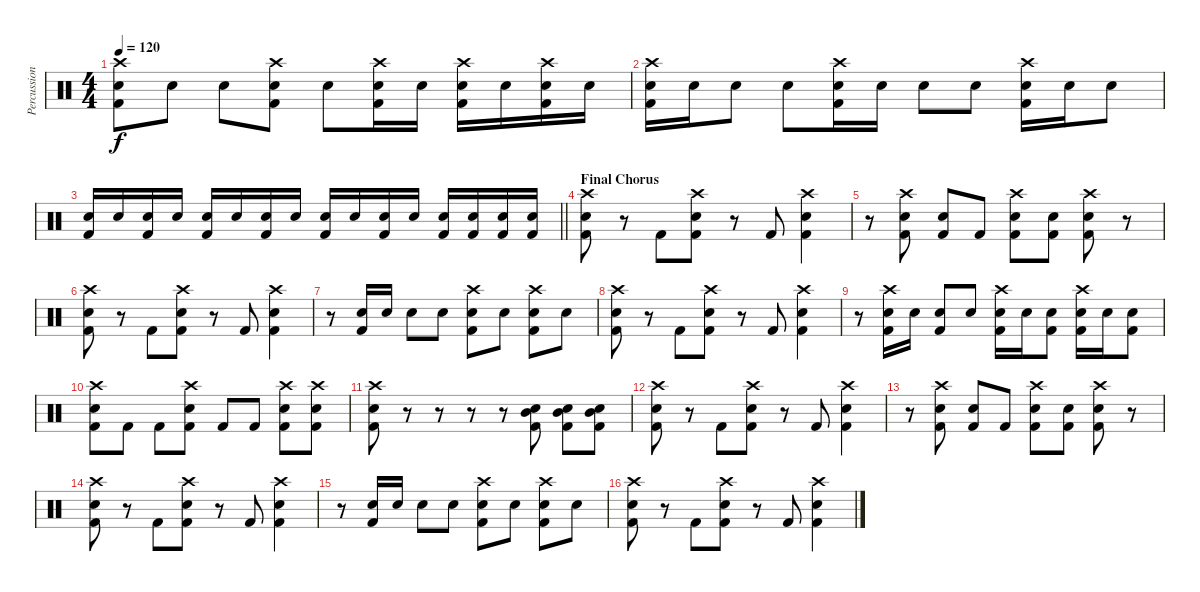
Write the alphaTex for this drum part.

\track ("Percussion" "Percussion") {instrument percussion}
\staff {score}
\articulation defaults
\ts (4 4)
\tempo 120
\clef neutral
\ks c
("Crash high (hit)" "Electric Snare (hit)" "Kick (hit) 2").8{dy f} "Electric Snare (hit)".8 "Electric Snare (hit)".8 ("Crash high (hit)" "Electric Snare (hit)" "Kick (hit) 2").8 "Electric Snare (hit)".8 ("Crash high (hit)" "Electric Snare (hit)" "Kick (hit) 2").16 "Electric Snare (hit)".16 ("Crash high (hit)" "Electric Snare (hit)" "Kick (hit) 2").16 "Electric Snare (hit)".16 ("Crash high (hit)" "Electric Snare (hit)" "Kick (hit) 2").16 "Electric Snare (hit)".16 |
("Crash high (hit)" "Electric Snare (hit)" "Kick (hit) 2").16 "Electric Snare (hit)".16 "Electric Snare (hit)".8 "Electric Snare (hit)".8 ("Crash high (hit)" "Electric Snare (hit)" "Kick (hit) 2").16 "Electric Snare (hit)".16 "Electric Snare (hit)".8 "Electric Snare (hit)".8 ("Crash high (hit)" "Electric Snare (hit)" "Kick (hit) 2").16 "Electric Snare (hit)".16 "Electric Snare (hit)".8 |
\barLineRight lightlight
("Electric Snare (hit)" "Kick (hit) 2").16 "Electric Snare (hit)".16 ("Electric Snare (hit)" "Kick (hit) 2").16 "Electric Snare (hit)".16 ("Electric Snare (hit)" "Kick (hit) 2").16 "Electric Snare (hit)".16 ("Electric Snare (hit)" "Kick (hit) 2").16 "Electric Snare (hit)".16 ("Electric Snare (hit)" "Kick (hit) 2").16 "Electric Snare (hit)".16 ("Electric Snare (hit)" "Kick (hit) 2").16 "Electric Snare (hit)".16 ("Electric Snare (hit)" "Kick (hit) 2").16 ("Electric Snare (hit)" "Kick (hit) 2").16 ("Electric Snare (hit)" "Kick (hit) 2").16 ("Electric Snare (hit)" "Kick (hit) 2").16 |
\section ("" "Final Chorus")
("Crash high (hit)" "Electric Snare (hit)" "Kick (hit) 2").8 r.8 "Kick (hit) 2".8 ("Crash high (hit)" "Electric Snare (hit)" "Kick (hit) 2").8 r.8 "Kick (hit) 2".8 ("Crash high (hit)" "Electric Snare (hit)" "Kick (hit) 2").4 |
r.8 ("Crash high (hit)" "Electric Snare (hit)" "Kick (hit) 2").8 ("Electric Snare (hit)" "Kick (hit) 2").8 "Kick (hit) 2".8 ("Crash high (hit)" "Electric Snare (hit)" "Kick (hit) 2").8 ("Electric Snare (hit)" "Kick (hit) 2").8 ("Crash high (hit)" "Electric Snare (hit)" "Kick (hit) 2").8 r.8 |
("Crash high (hit)" "Electric Snare (hit)" "Kick (hit) 2").8 r.8 "Kick (hit) 2".8 ("Crash high (hit)" "Electric Snare (hit)" "Kick (hit) 2").8 r.8 "Kick (hit) 2".8 ("Crash high (hit)" "Electric Snare (hit)" "Kick (hit) 2").4 |
r.8 ("Electric Snare (hit)" "Kick (hit) 2").16 "Electric Snare (hit)".16 "Electric Snare (hit)".8 "Electric Snare (hit)".8 ("Crash high (hit)" "Electric Snare (hit)" "Kick (hit) 2").8 "Electric Snare (hit)".8 ("Crash high (hit)" "Electric Snare (hit)" "Kick (hit) 2").8 "Electric Snare (hit)".8 |
("Crash high (hit)" "Electric Snare (hit)" "Kick (hit) 2").8 r.8 "Kick (hit) 2".8 ("Crash high (hit)" "Electric Snare (hit)" "Kick (hit) 2").8 r.8 "Kick (hit) 2".8 ("Crash high (hit)" "Electric Snare (hit)" "Kick (hit) 2").4 |
r.8 ("Crash high (hit)" "Electric Snare (hit)" "Kick (hit) 2").16 "Electric Snare (hit)".16 ("Electric Snare (hit)" "Kick (hit) 2").8 "Electric Snare (hit)".8 ("Crash high (hit)" "Electric Snare (hit)" "Kick (hit) 2").16 "Electric Snare (hit)".16 ("Electric Snare (hit)" "Kick (hit) 2").8 ("Crash high (hit)" "Electric Snare (hit)" "Kick (hit) 2").16 "Electric Snare (hit)".16 ("Electric Snare (hit)" "Kick (hit) 2").8 |
("Crash high (hit)" "Electric Snare (hit)" "Kick (hit) 2").8 "Kick (hit) 2".8 "Kick (hit) 2".8 ("Crash high (hit)" "Electric Snare (hit)" "Kick (hit) 2").8 "Kick (hit) 2".8 "Kick (hit) 2".8 ("Crash high (hit)" "Electric Snare (hit)" "Kick (hit) 2").8 ("Crash high (hit)" "Electric Snare (hit)" "Kick (hit) 2").8 |
("Crash high (hit)" "Electric Snare (hit)" "Kick (hit) 2").8 r.8 r.8 r.8 r.8 ("Mid Tom (hit)" "Electric Snare (hit)" "Kick (hit) 2").8 ("Mid Tom (hit)" "Electric Snare (hit)" "Kick (hit) 2").8 ("Mid Tom (hit)" "Electric Snare (hit)" "Kick (hit) 2").8 |
("Crash high (hit)" "Electric Snare (hit)" "Kick (hit) 2").8 r.8 "Kick (hit) 2".8 ("Crash high (hit)" "Electric Snare (hit)" "Kick (hit) 2").8 r.8 "Kick (hit) 2".8 ("Crash high (hit)" "Electric Snare (hit)" "Kick (hit) 2").4 |
r.8 ("Crash high (hit)" "Electric Snare (hit)" "Kick (hit) 2").8 ("Electric Snare (hit)" "Kick (hit) 2").8 "Kick (hit) 2".8 ("Crash high (hit)" "Electric Snare (hit)" "Kick (hit) 2").8 ("Electric Snare (hit)" "Kick (hit) 2").8 ("Crash high (hit)" "Electric Snare (hit)" "Kick (hit) 2").8 r.8 |
("Crash high (hit)" "Electric Snare (hit)" "Kick (hit) 2").8 r.8 "Kick (hit) 2".8 ("Crash high (hit)" "Electric Snare (hit)" "Kick (hit) 2").8 r.8 "Kick (hit) 2".8 ("Crash high (hit)" "Electric Snare (hit)" "Kick (hit) 2").4 |
r.8 ("Electric Snare (hit)" "Kick (hit) 2").16 "Electric Snare (hit)".16 "Electric Snare (hit)".8 "Electric Snare (hit)".8 ("Crash high (hit)" "Electric Snare (hit)" "Kick (hit) 2").8 "Electric Snare (hit)".8 ("Crash high (hit)" "Electric Snare (hit)" "Kick (hit) 2").8 "Electric Snare (hit)".8 |
("Crash high (hit)" "Electric Snare (hit)" "Kick (hit) 2").8 r.8 "Kick (hit) 2".8 ("Crash high (hit)" "Electric Snare (hit)" "Kick (hit) 2").8 r.8 "Kick (hit) 2".8 ("Crash high (hit)" "Electric Snare (hit)" "Kick (hit) 2").4
